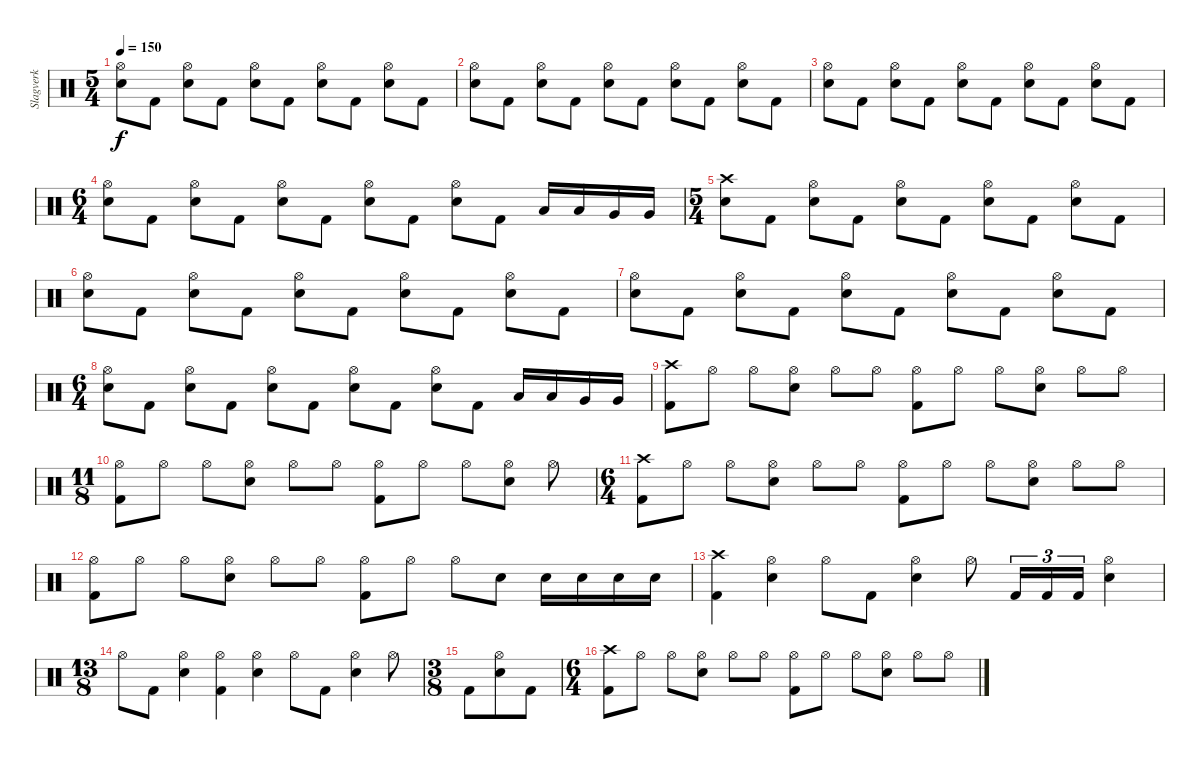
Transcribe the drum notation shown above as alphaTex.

\track ("Slagverk" "Slagverk") {instrument percussion}
\staff {score}
\articulation defaults
\ts (5 4)
\tempo 150
\clef neutral
\ks c
("Hi-Hat (open)" "Electric Snare (hit)").8{dy f} "Kick (hit) 2".8 ("Hi-Hat (open)" "Electric Snare (hit)").8 "Kick (hit) 2".8 ("Hi-Hat (open)" "Electric Snare (hit)").8 "Kick (hit) 2".8 ("Hi-Hat (open)" "Electric Snare (hit)").8 "Kick (hit) 2".8 ("Hi-Hat (open)" "Electric Snare (hit)").8 "Kick (hit) 2".8 |
("Hi-Hat (open)" "Electric Snare (hit)").8 "Kick (hit) 2".8 ("Hi-Hat (open)" "Electric Snare (hit)").8 "Kick (hit) 2".8 ("Hi-Hat (open)" "Electric Snare (hit)").8 "Kick (hit) 2".8 ("Hi-Hat (open)" "Electric Snare (hit)").8 "Kick (hit) 2".8 ("Hi-Hat (open)" "Electric Snare (hit)").8 "Kick (hit) 2".8 |
("Hi-Hat (open)" "Electric Snare (hit)").8 "Kick (hit) 2".8 ("Hi-Hat (open)" "Electric Snare (hit)").8 "Kick (hit) 2".8 ("Hi-Hat (open)" "Electric Snare (hit)").8 "Kick (hit) 2".8 ("Hi-Hat (open)" "Electric Snare (hit)").8 "Kick (hit) 2".8 ("Hi-Hat (open)" "Electric Snare (hit)").8 "Kick (hit) 2".8 |
\ts (6 4)
("Hi-Hat (open)" "Electric Snare (hit)").8 "Kick (hit) 2".8 ("Hi-Hat (open)" "Electric Snare (hit)").8 "Kick (hit) 2".8 ("Hi-Hat (open)" "Electric Snare (hit)").8 "Kick (hit) 2".8 ("Hi-Hat (open)" "Electric Snare (hit)").8 "Kick (hit) 2".8 ("Hi-Hat (open)" "Electric Snare (hit)").8 "Kick (hit) 2".8 "Low Tom (hit)".16 "Low Tom (hit)".16 "Very Low Tom (hit)".16 "Very Low Tom (hit)".16 |
\ts (5 4)
("Crash high (hit)" "Electric Snare (hit)").8 "Kick (hit) 2".8 ("Hi-Hat (open)" "Electric Snare (hit)").8 "Kick (hit) 2".8 ("Hi-Hat (open)" "Electric Snare (hit)").8 "Kick (hit) 2".8 ("Hi-Hat (open)" "Electric Snare (hit)").8 "Kick (hit) 2".8 ("Hi-Hat (open)" "Electric Snare (hit)").8 "Kick (hit) 2".8 |
("Hi-Hat (open)" "Electric Snare (hit)").8 "Kick (hit) 2".8 ("Hi-Hat (open)" "Electric Snare (hit)").8 "Kick (hit) 2".8 ("Hi-Hat (open)" "Electric Snare (hit)").8 "Kick (hit) 2".8 ("Hi-Hat (open)" "Electric Snare (hit)").8 "Kick (hit) 2".8 ("Hi-Hat (open)" "Electric Snare (hit)").8 "Kick (hit) 2".8 |
("Hi-Hat (open)" "Electric Snare (hit)").8 "Kick (hit) 2".8 ("Hi-Hat (open)" "Electric Snare (hit)").8 "Kick (hit) 2".8 ("Hi-Hat (open)" "Electric Snare (hit)").8 "Kick (hit) 2".8 ("Hi-Hat (open)" "Electric Snare (hit)").8 "Kick (hit) 2".8 ("Hi-Hat (open)" "Electric Snare (hit)").8 "Kick (hit) 2".8 |
\ts (6 4)
("Hi-Hat (open)" "Electric Snare (hit)").8 "Kick (hit) 2".8 ("Hi-Hat (open)" "Electric Snare (hit)").8 "Kick (hit) 2".8 ("Hi-Hat (open)" "Electric Snare (hit)").8 "Kick (hit) 2".8 ("Hi-Hat (open)" "Electric Snare (hit)").8 "Kick (hit) 2".8 ("Hi-Hat (open)" "Electric Snare (hit)").8 "Kick (hit) 2".8 "Low Tom (hit)".16 "Low Tom (hit)".16 "Very Low Tom (hit)".16 "Very Low Tom (hit)".16 |
("Crash high (hit)" "Kick (hit) 2").8 "Hi-Hat (open)".8 "Hi-Hat (open)".8 ("Hi-Hat (open)" "Electric Snare (hit)").8 "Hi-Hat (open)".8 "Hi-Hat (open)".8 ("Hi-Hat (open)" "Kick (hit) 2").8 "Hi-Hat (open)".8 "Hi-Hat (open)".8 ("Hi-Hat (open)" "Electric Snare (hit)").8 "Hi-Hat (open)".8 "Hi-Hat (open)".8 |
\ts (11 8)
("Hi-Hat (open)" "Kick (hit) 2").8 "Hi-Hat (open)".8 "Hi-Hat (open)".8 ("Hi-Hat (open)" "Electric Snare (hit)").8 "Hi-Hat (open)".8 "Hi-Hat (open)".8 ("Hi-Hat (open)" "Kick (hit) 2").8 "Hi-Hat (open)".8 "Hi-Hat (open)".8 ("Hi-Hat (open)" "Electric Snare (hit)").8 "Hi-Hat (open)".8 |
\ts (6 4)
("Crash high (hit)" "Kick (hit) 2").8 "Hi-Hat (open)".8 "Hi-Hat (open)".8 ("Hi-Hat (open)" "Electric Snare (hit)").8 "Hi-Hat (open)".8 "Hi-Hat (open)".8 ("Hi-Hat (open)" "Kick (hit) 2").8 "Hi-Hat (open)".8 "Hi-Hat (open)".8 ("Hi-Hat (open)" "Electric Snare (hit)").8 "Hi-Hat (open)".8 "Hi-Hat (open)".8 |
("Hi-Hat (open)" "Kick (hit) 2").8 "Hi-Hat (open)".8 "Hi-Hat (open)".8 ("Hi-Hat (open)" "Electric Snare (hit)").8 "Hi-Hat (open)".8 "Hi-Hat (open)".8 ("Hi-Hat (open)" "Kick (hit) 2").8 "Hi-Hat (open)".8 "Hi-Hat (open)".8 "Electric Snare (hit)".8 "Electric Snare (hit)".16 "Electric Snare (hit)".16 "Electric Snare (hit)".16 "Electric Snare (hit)".16 |
("Crash high (hit)" "Kick (hit) 2").4 ("Hi-Hat (open)" "Electric Snare (hit)").4 "Hi-Hat (open)".8 "Kick (hit) 2".8 ("Hi-Hat (open)" "Electric Snare (hit)").4 "Hi-Hat (open)".8 "Kick (hit) 2".16{tu (3 2)} "Kick (hit) 2".16{tu (3 2)} "Kick (hit) 2".16{tu (3 2)} ("Hi-Hat (open)" "Electric Snare (hit)").4 |
\ts (13 8)
"Hi-Hat (open)".8 "Kick (hit) 2".8 ("Hi-Hat (open)" "Electric Snare (hit)").4 ("Hi-Hat (open)" "Kick (hit) 2").4 ("Hi-Hat (open)" "Electric Snare (hit)").4 "Hi-Hat (open)".8 "Kick (hit) 2".8 ("Hi-Hat (open)" "Electric Snare (hit)").4 "Hi-Hat (open)".8 |
\ts (3 8)
"Kick (hit) 2".8 ("Hi-Hat (open)" "Electric Snare (hit)").8 "Kick (hit) 2".8 |
\ts (6 4)
("Crash high (hit)" "Kick (hit) 2").8 "Hi-Hat (open)".8 "Hi-Hat (open)".8 ("Hi-Hat (open)" "Electric Snare (hit)").8 "Hi-Hat (open)".8 "Hi-Hat (open)".8 ("Hi-Hat (open)" "Kick (hit) 2").8 "Hi-Hat (open)".8 "Hi-Hat (open)".8 ("Hi-Hat (open)" "Electric Snare (hit)").8 "Hi-Hat (open)".8 "Hi-Hat (open)".8
